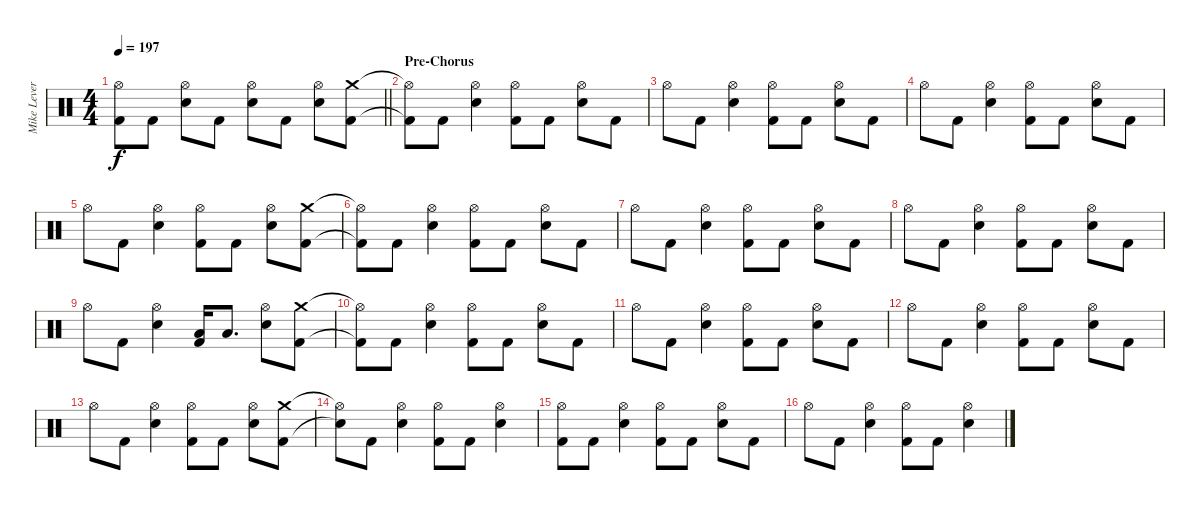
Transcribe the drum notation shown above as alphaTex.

\track ("Mike Leverence - Drums" "Mike Lever") {instrument percussion}
\staff {score}
\articulation defaults
\ts (4 4)
\tempo 197
\clef neutral
\barLineRight lightlight
\ks c
("Hi-Hat (open)" "Kick (hit) 2").8{dy f} "Kick (hit) 2".8 ("Hi-Hat (open)" "Electric Snare (hit)").8 "Kick (hit) 2".8 ("Hi-Hat (open)" "Electric Snare (hit)").8 "Kick (hit) 2".8 ("Hi-Hat (open)" "Electric Snare (hit)").8 ("Crash medium (hit)" "Kick (hit) 2").8 |
\section ("" "Pre-Chorus")
("Hi-Hat (open)"{t} "Kick (hit) 2"{t}).8 "Kick (hit) 2".8 ("Hi-Hat (open)" "Electric Snare (hit)").4 ("Hi-Hat (open)" "Kick (hit) 2").8 "Kick (hit) 2".8 ("Hi-Hat (open)" "Electric Snare (hit)").8 "Kick (hit) 2".8 |
"Hi-Hat (open)".8 "Kick (hit) 2".8 ("Hi-Hat (open)" "Electric Snare (hit)").4 ("Hi-Hat (open)" "Kick (hit) 2").8 "Kick (hit) 2".8 ("Hi-Hat (open)" "Electric Snare (hit)").8 "Kick (hit) 2".8 |
"Hi-Hat (open)".8 "Kick (hit) 2".8 ("Hi-Hat (open)" "Electric Snare (hit)").4 ("Hi-Hat (open)" "Kick (hit) 2").8 "Kick (hit) 2".8 ("Hi-Hat (open)" "Electric Snare (hit)").8 "Kick (hit) 2".8 |
"Hi-Hat (open)".8 "Kick (hit) 2".8 ("Hi-Hat (open)" "Electric Snare (hit)").4 ("Hi-Hat (open)" "Kick (hit) 2").8 "Kick (hit) 2".8 ("Hi-Hat (open)" "Electric Snare (hit)").8 ("Crash medium (hit)" "Kick (hit) 2").8 |
("Hi-Hat (open)"{t} "Kick (hit) 2"{t}).8 "Kick (hit) 2".8 ("Hi-Hat (open)" "Electric Snare (hit)").4 ("Hi-Hat (open)" "Kick (hit) 2").8 "Kick (hit) 2".8 ("Hi-Hat (open)" "Electric Snare (hit)").8 "Kick (hit) 2".8 |
"Hi-Hat (open)".8 "Kick (hit) 2".8 ("Hi-Hat (open)" "Electric Snare (hit)").4 ("Hi-Hat (open)" "Kick (hit) 2").8 "Kick (hit) 2".8 ("Hi-Hat (open)" "Electric Snare (hit)").8 "Kick (hit) 2".8 |
"Hi-Hat (open)".8 "Kick (hit) 2".8 ("Hi-Hat (open)" "Electric Snare (hit)").4 ("Hi-Hat (open)" "Kick (hit) 2").8 "Kick (hit) 2".8 ("Hi-Hat (open)" "Electric Snare (hit)").8 "Kick (hit) 2".8 |
"Hi-Hat (open)".8 "Kick (hit) 2".8 ("Hi-Hat (open)" "Electric Snare (hit)").4 ("Low Tom (hit)" "Kick (hit) 2").16 "Low Tom (hit)".8{d} ("Hi-Hat (open)" "Electric Snare (hit)").8 ("Crash medium (hit)" "Kick (hit) 2").8 |
("Hi-Hat (open)"{t} "Kick (hit) 2"{t}).8 "Kick (hit) 2".8 ("Hi-Hat (open)" "Electric Snare (hit)").4 ("Hi-Hat (open)" "Kick (hit) 2").8 "Kick (hit) 2".8 ("Hi-Hat (open)" "Electric Snare (hit)").8 "Kick (hit) 2".8 |
"Hi-Hat (open)".8 "Kick (hit) 2".8 ("Hi-Hat (open)" "Electric Snare (hit)").4 ("Hi-Hat (open)" "Kick (hit) 2").8 "Kick (hit) 2".8 ("Hi-Hat (open)" "Electric Snare (hit)").8 "Kick (hit) 2".8 |
"Hi-Hat (open)".8 "Kick (hit) 2".8 ("Hi-Hat (open)" "Electric Snare (hit)").4 ("Hi-Hat (open)" "Kick (hit) 2").8 "Kick (hit) 2".8 ("Hi-Hat (open)" "Electric Snare (hit)").8 "Kick (hit) 2".8 |
"Hi-Hat (open)".8 "Kick (hit) 2".8 ("Hi-Hat (open)" "Electric Snare (hit)").4 ("Hi-Hat (open)" "Kick (hit) 2").8 "Kick (hit) 2".8 ("Hi-Hat (open)" "Electric Snare (hit)").8 ("Crash medium (hit)" "Kick (hit) 2").8 |
("Hi-Hat (open)"{t} "Snare (hit)"{t}).8 "Kick (hit) 2".8 ("Hi-Hat (open)" "Electric Snare (hit)").4 ("Hi-Hat (open)" "Kick (hit) 2").8 "Kick (hit) 2".8 ("Hi-Hat (open)" "Electric Snare (hit)").4 |
("Hi-Hat (open)" "Kick (hit) 2").8 "Kick (hit) 2".8 ("Hi-Hat (open)" "Electric Snare (hit)").4 ("Hi-Hat (open)" "Kick (hit) 2").8 "Kick (hit) 2".8 ("Hi-Hat (open)" "Electric Snare (hit)").8 "Kick (hit) 2".8 |
"Hi-Hat (open)".8 "Kick (hit) 2".8 ("Hi-Hat (open)" "Electric Snare (hit)").4 ("Hi-Hat (open)" "Kick (hit) 2").8 "Kick (hit) 2".8 ("Hi-Hat (open)" "Electric Snare (hit)").4
